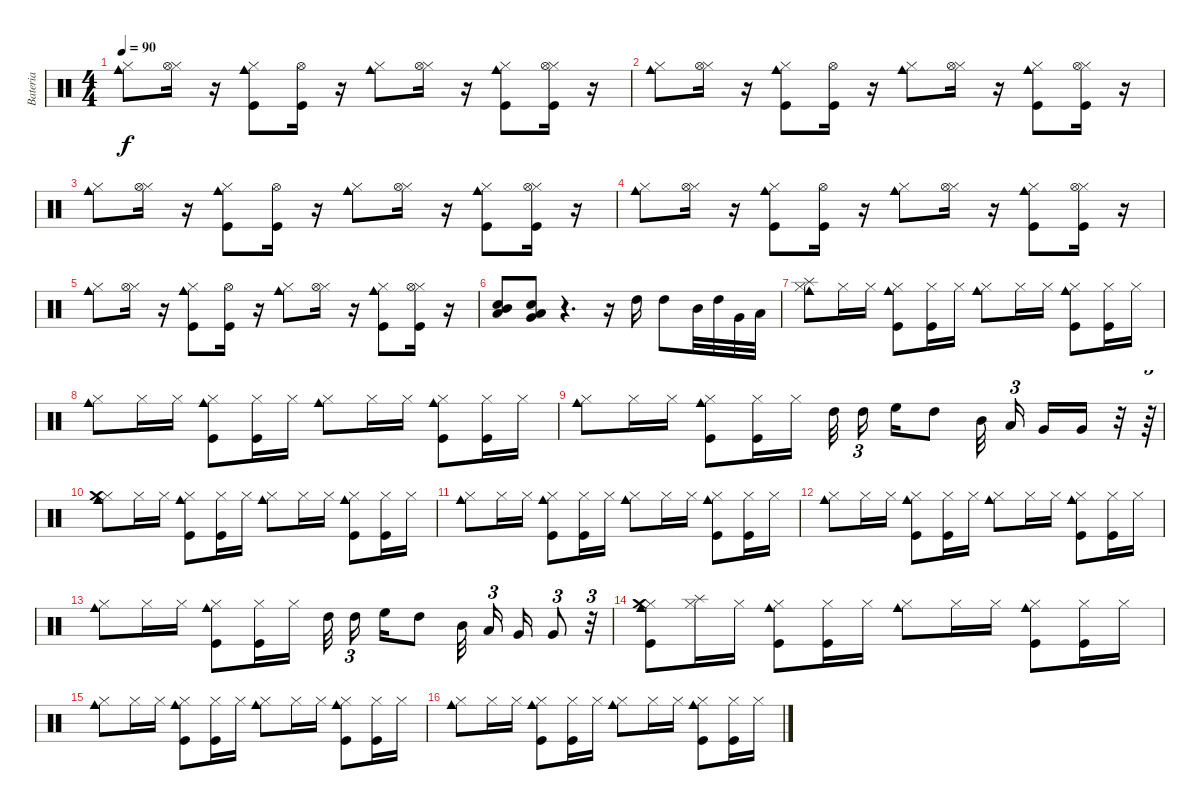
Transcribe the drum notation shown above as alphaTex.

\track ("Bateria" "Bateria") {instrument percussion}
\staff {score}
\articulation defaults
\ts (4 4)
\tempo 90
\clef neutral
\ks c
("Hi-Hat (closed)" "Cowbell medium (hit)").8{dy f} ("Hi-Hat (closed)" "Hi-Hat (open)").16 r.16 ("Hi-Hat (closed)" "Kick (hit)" "Cowbell medium (hit)").8 ("Kick (hit)" "Hi-Hat (open)").16 r.16 ("Hi-Hat (closed)" "Cowbell medium (hit)").8 ("Hi-Hat (closed)" "Hi-Hat (open)").16 r.16 ("Hi-Hat (closed)" "Kick (hit)" "Cowbell medium (hit)").8 ("Hi-Hat (closed)" "Kick (hit)" "Hi-Hat (open)").16 r.16 |
("Hi-Hat (closed)" "Cowbell medium (hit)").8 ("Hi-Hat (closed)" "Hi-Hat (open)").16 r.16 ("Hi-Hat (closed)" "Kick (hit)" "Cowbell medium (hit)").8 ("Kick (hit)" "Hi-Hat (open)").16 r.16 ("Hi-Hat (closed)" "Cowbell medium (hit)").8 ("Hi-Hat (closed)" "Hi-Hat (open)").16 r.16 ("Hi-Hat (closed)" "Kick (hit)" "Cowbell medium (hit)").8 ("Hi-Hat (closed)" "Kick (hit)" "Hi-Hat (open)").16 r.16 |
("Hi-Hat (closed)" "Cowbell medium (hit)").8 ("Hi-Hat (closed)" "Hi-Hat (open)").16 r.16 ("Hi-Hat (closed)" "Kick (hit)" "Cowbell medium (hit)").8 ("Kick (hit)" "Hi-Hat (open)").16 r.16 ("Hi-Hat (closed)" "Cowbell medium (hit)").8 ("Hi-Hat (closed)" "Hi-Hat (open)").16 r.16 ("Hi-Hat (closed)" "Kick (hit)" "Cowbell medium (hit)").8 ("Hi-Hat (closed)" "Kick (hit)" "Hi-Hat (open)").16 r.16 |
("Hi-Hat (closed)" "Cowbell medium (hit)").8 ("Hi-Hat (closed)" "Hi-Hat (open)").16 r.16 ("Hi-Hat (closed)" "Kick (hit)" "Cowbell medium (hit)").8 ("Kick (hit)" "Hi-Hat (open)").16 r.16 ("Hi-Hat (closed)" "Cowbell medium (hit)").8 ("Hi-Hat (closed)" "Hi-Hat (open)").16 r.16 ("Hi-Hat (closed)" "Kick (hit)" "Cowbell medium (hit)").8 ("Hi-Hat (closed)" "Kick (hit)" "Hi-Hat (open)").16 r.16 |
("Hi-Hat (closed)" "Cowbell medium (hit)").8 ("Hi-Hat (closed)" "Hi-Hat (open)").16 r.16 ("Hi-Hat (closed)" "Kick (hit)" "Cowbell medium (hit)").8 ("Kick (hit)" "Hi-Hat (open)").16 r.16 ("Hi-Hat (closed)" "Cowbell medium (hit)").8 ("Hi-Hat (closed)" "Hi-Hat (open)").16 r.16 ("Hi-Hat (closed)" "Kick (hit)" "Cowbell medium (hit)").8 ("Hi-Hat (closed)" "Kick (hit)" "Hi-Hat (open)").16 r.16 |
("Snare (hit) 2" "Mid Tom (hit)" "Low Tom (hit)").8 ("Snare (hit) 2" "Low Tom (hit)" "Very Low Tom (hit)").8 r.4{d} r.16 "High Tom (hit)".16 "High Tom (hit)".8 "Mid Tom (hit)".32 "High Tom (hit)".32 "Very Low Tom (hit)".32 "Low Tom (hit)".32 |
("Hi-Hat (closed)" "Splash (hit)" "Cowbell medium (hit)").8 "Hi-Hat (closed)".16 "Hi-Hat (closed)".16 ("Hi-Hat (closed)" "Kick (hit)" "Cowbell medium (hit)").8 ("Hi-Hat (closed)" "Kick (hit)").16 "Hi-Hat (closed)".16 ("Hi-Hat (closed)" "Cowbell medium (hit)").8 "Hi-Hat (closed)".16 "Hi-Hat (closed)".16 ("Hi-Hat (closed)" "Kick (hit)" "Cowbell medium (hit)").8 ("Hi-Hat (closed)" "Kick (hit)").16 "Hi-Hat (closed)".16 |
("Hi-Hat (closed)" "Cowbell medium (hit)").8 "Hi-Hat (closed)".16 "Hi-Hat (closed)".16 ("Hi-Hat (closed)" "Kick (hit)" "Cowbell medium (hit)").8 ("Hi-Hat (closed)" "Kick (hit)").16 "Hi-Hat (closed)".16 ("Hi-Hat (closed)" "Cowbell medium (hit)").8 "Hi-Hat (closed)".16 "Hi-Hat (closed)".16 ("Hi-Hat (closed)" "Kick (hit)" "Cowbell medium (hit)").8 ("Hi-Hat (closed)" "Kick (hit)").16 "Hi-Hat (closed)".16 |
("Hi-Hat (closed)" "Cowbell medium (hit)").8 "Hi-Hat (closed)".16 "Hi-Hat (closed)".16 ("Hi-Hat (closed)" "Kick (hit)" "Cowbell medium (hit)").8 ("Hi-Hat (closed)" "Kick (hit)").16 "Hi-Hat (closed)".16 "High Tom (hit)".32{beam splitsecondary} "High Tom (hit)".16{tu (3 2) beam splitsecondary} "High Floor Tom (hit)".16 "High Tom (hit)".8 "Mid Tom (hit)".32{beam splitsecondary} "Low Tom (hit)".16{tu (3 2) beam splitsecondary} "Very Low Tom (hit)".16 "Very Low Tom (hit)".16 r.32 r.64{tu (3 2)} |
("Hi-Hat (closed)" "Crash medium (hit)" "Cowbell medium (hit)").8 "Hi-Hat (closed)".16 "Hi-Hat (closed)".16 ("Hi-Hat (closed)" "Kick (hit)" "Cowbell medium (hit)").8 ("Hi-Hat (closed)" "Kick (hit)").16 "Hi-Hat (closed)".16 ("Hi-Hat (closed)" "Cowbell medium (hit)").8 "Hi-Hat (closed)".16 "Hi-Hat (closed)".16 ("Hi-Hat (closed)" "Kick (hit)" "Cowbell medium (hit)").8 ("Hi-Hat (closed)" "Kick (hit)").16 "Hi-Hat (closed)".16 |
("Hi-Hat (closed)" "Cowbell medium (hit)").8 "Hi-Hat (closed)".16 "Hi-Hat (closed)".16 ("Hi-Hat (closed)" "Kick (hit)" "Cowbell medium (hit)").8 ("Hi-Hat (closed)" "Kick (hit)").16 "Hi-Hat (closed)".16 ("Hi-Hat (closed)" "Cowbell medium (hit)").8 "Hi-Hat (closed)".16 "Hi-Hat (closed)".16 ("Hi-Hat (closed)" "Kick (hit)" "Cowbell medium (hit)").8 ("Hi-Hat (closed)" "Kick (hit)").16 "Hi-Hat (closed)".16 |
("Hi-Hat (closed)" "Cowbell medium (hit)").8 "Hi-Hat (closed)".16 "Hi-Hat (closed)".16 ("Hi-Hat (closed)" "Kick (hit)" "Cowbell medium (hit)").8 ("Hi-Hat (closed)" "Kick (hit)").16 "Hi-Hat (closed)".16 ("Hi-Hat (closed)" "Cowbell medium (hit)").8 "Hi-Hat (closed)".16 "Hi-Hat (closed)".16 ("Hi-Hat (closed)" "Kick (hit)" "Cowbell medium (hit)").8 ("Hi-Hat (closed)" "Kick (hit)").16 "Hi-Hat (closed)".16 |
("Hi-Hat (closed)" "Cowbell medium (hit)").8 "Hi-Hat (closed)".16 "Hi-Hat (closed)".16 ("Hi-Hat (closed)" "Kick (hit)" "Cowbell medium (hit)").8 ("Hi-Hat (closed)" "Kick (hit)").16 "Hi-Hat (closed)".16 "High Tom (hit)".32{beam splitsecondary} "High Tom (hit)".16{tu (3 2) beam splitsecondary} "High Floor Tom (hit)".16 "High Tom (hit)".8 "Mid Tom (hit)".32{beam splitsecondary} "Low Tom (hit)".16{tu (3 2) beam splitsecondary} "Very Low Tom (hit)".16 "Very Low Tom (hit)".8{tu (3 2)} r.32{tu (3 2)} |
("Hi-Hat (closed)" "Kick (hit)" "Crash medium (hit)" "Cowbell medium (hit)").8 ("Hi-Hat (closed)" "Splash (hit)").16 "Hi-Hat (closed)".16 ("Hi-Hat (closed)" "Kick (hit)" "Cowbell medium (hit)").8 ("Hi-Hat (closed)" "Kick (hit)").16 "Hi-Hat (closed)".16 ("Hi-Hat (closed)" "Cowbell medium (hit)").8 "Hi-Hat (closed)".16 "Hi-Hat (closed)".16 ("Hi-Hat (closed)" "Kick (hit)" "Cowbell medium (hit)").8 ("Hi-Hat (closed)" "Kick (hit)").16 "Hi-Hat (closed)".16 |
("Hi-Hat (closed)" "Cowbell medium (hit)").8 "Hi-Hat (closed)".16 "Hi-Hat (closed)".16 ("Hi-Hat (closed)" "Kick (hit)" "Cowbell medium (hit)").8 ("Hi-Hat (closed)" "Kick (hit)").16 "Hi-Hat (closed)".16 ("Hi-Hat (closed)" "Cowbell medium (hit)").8 "Hi-Hat (closed)".16 "Hi-Hat (closed)".16 ("Hi-Hat (closed)" "Kick (hit)" "Cowbell medium (hit)").8 ("Hi-Hat (closed)" "Kick (hit)").16 "Hi-Hat (closed)".16 |
("Hi-Hat (closed)" "Cowbell medium (hit)").8 "Hi-Hat (closed)".16 "Hi-Hat (closed)".16 ("Hi-Hat (closed)" "Kick (hit)" "Cowbell medium (hit)").8 ("Hi-Hat (closed)" "Kick (hit)").16 "Hi-Hat (closed)".16 ("Hi-Hat (closed)" "Cowbell medium (hit)").8 "Hi-Hat (closed)".16 "Hi-Hat (closed)".16 ("Hi-Hat (closed)" "Kick (hit)" "Cowbell medium (hit)").8 ("Hi-Hat (closed)" "Kick (hit)").16 "Hi-Hat (closed)".16
